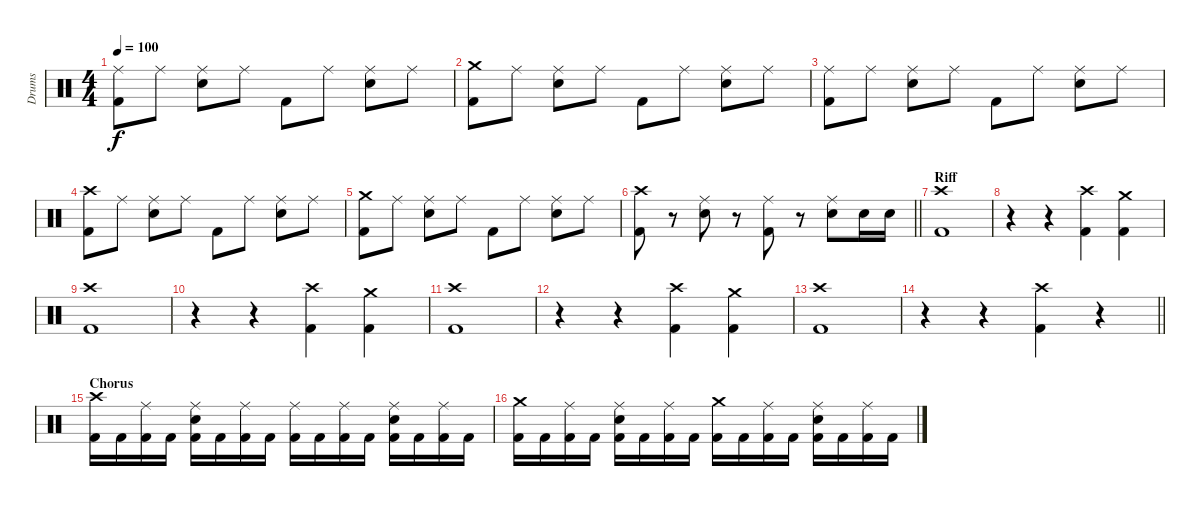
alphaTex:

\track ("Drums" "Drums") {instrument percussion}
\staff {score}
\articulation defaults
\ts (4 4)
\tempo 100
\clef neutral
\ks c
("Ride (middle)" "Kick (hit) 2").8{dy f} "Ride (middle)".8 ("Ride (middle)" "Snare (hit) 2").8 "Ride (middle)".8 "Kick (hit) 2".8 "Ride (middle)".8 ("Ride (middle)" "Snare (hit) 2").8 "Ride (middle)".8 |
("Crash medium (hit)" "Kick (hit) 2").8 "Ride (middle)".8 ("Ride (middle)" "Snare (hit) 2").8 "Ride (middle)".8 "Kick (hit) 2".8 "Ride (middle)".8 ("Ride (middle)" "Snare (hit) 2").8 "Ride (middle)".8 |
("Ride (middle)" "Kick (hit) 2").8 "Ride (middle)".8 ("Ride (middle)" "Snare (hit) 2").8 "Ride (middle)".8 "Kick (hit) 2".8 "Ride (middle)".8 ("Ride (middle)" "Snare (hit) 2").8 "Ride (middle)".8 |
("Crash high (hit)" "Kick (hit) 2").8 "Ride (middle)".8 ("Ride (middle)" "Snare (hit) 2").8 "Ride (middle)".8 "Kick (hit) 2".8 "Ride (middle)".8 ("Ride (middle)" "Snare (hit) 2").8 "Ride (middle)".8 |
("Crash medium (hit)" "Kick (hit) 2").8 "Ride (middle)".8 ("Ride (middle)" "Snare (hit) 2").8 "Ride (middle)".8 "Kick (hit) 2".8 "Ride (middle)".8 ("Ride (middle)" "Snare (hit) 2").8 "Ride (middle)".8 |
\barLineRight lightlight
("Crash high (hit)" "Kick (hit) 2").8 r.8 ("Ride (middle)" "Snare (hit) 2").8 r.8 ("Ride (middle)" "Kick (hit) 2").8 r.8 ("Ride (middle)" "Snare (hit) 2").8 "Snare (hit) 2".16 "Snare (hit) 2".16 |
\section ("" "Riff")
("Crash high (hit)" "Kick (hit) 2").1 |
r.4 r.4 ("Crash high (hit)" "Kick (hit) 2").4 ("Crash medium (hit)" "Kick (hit) 2").4 |
("Crash high (hit)" "Kick (hit) 2").1 |
r.4 r.4 ("Crash high (hit)" "Kick (hit) 2").4 ("Crash medium (hit)" "Kick (hit) 2").4 |
("Crash high (hit)" "Kick (hit) 2").1 |
r.4 r.4 ("Crash high (hit)" "Kick (hit) 2").4 ("Crash medium (hit)" "Kick (hit) 2").4 |
("Crash high (hit)" "Kick (hit) 2").1 |
\barLineRight lightlight
r.4 r.4 ("Crash high (hit)" "Kick (hit) 2").4 r.4 |
\section ("" "Chorus")
("Crash high (hit)" "Kick (hit) 2").16 "Kick (hit) 2".16 ("Ride (middle)" "Kick (hit) 2").16 "Kick (hit) 2".16 ("Ride (middle)" "Snare (hit) 2" "Kick (hit) 2").16 "Kick (hit) 2".16 ("Ride (middle)" "Kick (hit) 2").16 "Kick (hit) 2".16 ("Ride (middle)" "Kick (hit) 2").16 "Kick (hit) 2".16 ("Ride (middle)" "Kick (hit) 2").16 "Kick (hit) 2".16 ("Ride (middle)" "Snare (hit) 2" "Kick (hit) 2").16 "Kick (hit) 2".16 ("Ride (middle)" "Kick (hit) 2").16 "Kick (hit) 2".16 |
("Crash medium (hit)" "Kick (hit) 2").16 "Kick (hit) 2".16 ("Ride (middle)" "Kick (hit) 2").16 "Kick (hit) 2".16 ("Ride (middle)" "Snare (hit) 2" "Kick (hit) 2").16 "Kick (hit) 2".16 ("Ride (middle)" "Kick (hit) 2").16 "Kick (hit) 2".16 ("Crash medium (hit)" "Kick (hit) 2").16 "Kick (hit) 2".16 ("Ride (middle)" "Kick (hit) 2").16 "Kick (hit) 2".16 ("Ride (middle)" "Snare (hit) 2" "Kick (hit) 2").16 "Kick (hit) 2".16 ("Ride (middle)" "Kick (hit) 2").16 "Kick (hit) 2".16
